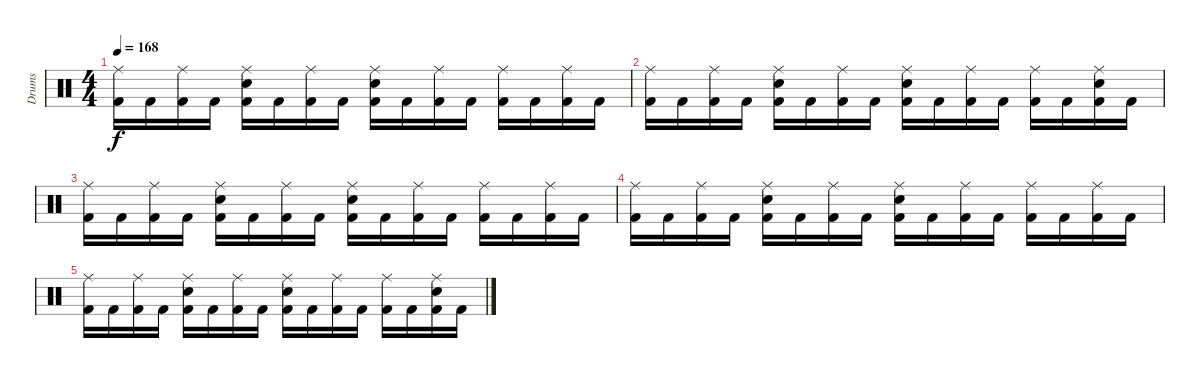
\track ("Drums" "Drums") {instrument percussion}
\staff {score}
\articulation defaults
\ts (4 4)
\tempo 168
\clef neutral
\ks c
("Kick (hit) 2" "Ride (middle)").16{dy f} "Kick (hit) 2".16 ("Kick (hit) 2" "Ride (middle)").16 "Kick (hit) 2".16 ("Kick (hit) 2" "Snare (hit) 2" "Ride (middle)").16 "Kick (hit) 2".16 ("Kick (hit) 2" "Ride (middle)").16 "Kick (hit) 2".16 ("Kick (hit) 2" "Snare (hit) 2" "Ride (middle)").16 "Kick (hit) 2".16 ("Kick (hit) 2" "Ride (middle)").16 "Kick (hit) 2".16 ("Kick (hit) 2" "Ride (middle)").16 "Kick (hit) 2".16 ("Kick (hit) 2" "Ride (middle)").16 "Kick (hit) 2".16 |
("Kick (hit) 2" "Ride (middle)").16 "Kick (hit) 2".16 ("Kick (hit) 2" "Ride (middle)").16 "Kick (hit) 2".16 ("Kick (hit) 2" "Snare (hit) 2" "Ride (middle)").16 "Kick (hit) 2".16 ("Kick (hit) 2" "Ride (middle)").16 "Kick (hit) 2".16 ("Kick (hit) 2" "Snare (hit) 2" "Ride (middle)").16 "Kick (hit) 2".16 ("Kick (hit) 2" "Ride (middle)").16 "Kick (hit) 2".16 ("Kick (hit) 2" "Ride (middle)").16 "Kick (hit) 2".16 ("Kick (hit) 2" "Snare (hit) 2" "Ride (middle)").16 "Kick (hit) 2".16 |
("Kick (hit) 2" "Ride (middle)").16{volume 2} "Kick (hit) 2".16 ("Kick (hit) 2" "Ride (middle)").16 "Kick (hit) 2".16 ("Kick (hit) 2" "Snare (hit) 2" "Ride (middle)").16 "Kick (hit) 2".16 ("Kick (hit) 2" "Ride (middle)").16 "Kick (hit) 2".16 ("Kick (hit) 2" "Snare (hit) 2" "Ride (middle)").16 "Kick (hit) 2".16 ("Kick (hit) 2" "Ride (middle)").16 "Kick (hit) 2".16 ("Kick (hit) 2" "Ride (middle)").16 "Kick (hit) 2".16 ("Kick (hit) 2" "Ride (middle)").16 "Kick (hit) 2".16 |
("Kick (hit) 2" "Ride (middle)").16 "Kick (hit) 2".16 ("Kick (hit) 2" "Ride (middle)").16 "Kick (hit) 2".16 ("Kick (hit) 2" "Snare (hit) 2" "Ride (middle)").16 "Kick (hit) 2".16 ("Kick (hit) 2" "Ride (middle)").16 "Kick (hit) 2".16 ("Kick (hit) 2" "Snare (hit) 2" "Ride (middle)").16 "Kick (hit) 2".16 ("Kick (hit) 2" "Ride (middle)").16 "Kick (hit) 2".16 ("Kick (hit) 2" "Ride (middle)").16 "Kick (hit) 2".16 ("Kick (hit) 2" "Ride (middle)").16 "Kick (hit) 2".16 |
("Kick (hit) 2" "Ride (middle)").16 "Kick (hit) 2".16 ("Kick (hit) 2" "Ride (middle)").16 "Kick (hit) 2".16 ("Kick (hit) 2" "Snare (hit) 2" "Ride (middle)").16 "Kick (hit) 2".16 ("Kick (hit) 2" "Ride (middle)").16 "Kick (hit) 2".16 ("Kick (hit) 2" "Snare (hit) 2" "Ride (middle)").16 "Kick (hit) 2".16 ("Kick (hit) 2" "Ride (middle)").16 "Kick (hit) 2".16 ("Kick (hit) 2" "Ride (middle)").16 "Kick (hit) 2".16 ("Kick (hit) 2" "Snare (hit) 2" "Ride (middle)").16 "Kick (hit) 2".16
